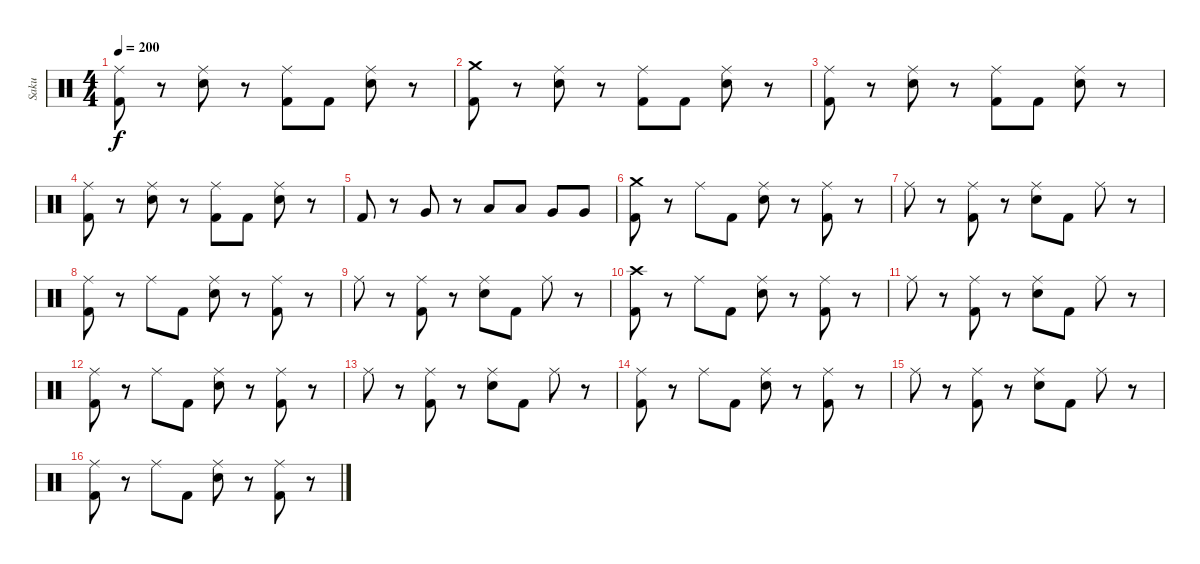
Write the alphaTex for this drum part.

\track ("Saku" "Saku") {instrument percussion}
\staff {score}
\articulation defaults
\ts (4 4)
\tempo 200
\clef neutral
\ks c
("Ride (middle)" "Kick (hit) 2").8{dy f} r.8 ("Ride (middle)" "Electric Snare (hit)").8 r.8 ("Ride (middle)" "Kick (hit) 2").8 "Kick (hit) 2".8 ("Ride (middle)" "Electric Snare (hit)").8 r.8 |
("Crash medium (hit)" "Kick (hit) 2").8 r.8 ("Ride (middle)" "Electric Snare (hit)").8 r.8 ("Ride (middle)" "Kick (hit) 2").8 "Kick (hit) 2".8 ("Ride (middle)" "Electric Snare (hit)").8 r.8 |
("Ride (middle)" "Kick (hit) 2").8 r.8 ("Ride (middle)" "Electric Snare (hit)").8 r.8 ("Ride (middle)" "Kick (hit) 2").8 "Kick (hit) 2".8 ("Ride (middle)" "Electric Snare (hit)").8 r.8 |
("Ride (middle)" "Kick (hit) 2").8 r.8 ("Ride (middle)" "Electric Snare (hit)").8 r.8 ("Ride (middle)" "Kick (hit) 2").8 "Kick (hit) 2".8 ("Ride (middle)" "Electric Snare (hit)").8 r.8 |
"Kick (hit) 2".8 r.8 "Very Low Tom (hit)".8 r.8 "Low Tom (hit)".8 "Low Tom (hit)".8 "Very Low Tom (hit)".8 "Very Low Tom (hit)".8 |
("Crash medium (hit)" "Kick (hit) 2").8 r.8 "Ride (middle)".8 "Kick (hit) 2".8 ("Ride (middle)" "Electric Snare (hit)").8 r.8 ("Ride (middle)" "Kick (hit) 2").8 r.8 |
"Ride (middle)".8 r.8 ("Ride (middle)" "Kick (hit) 2").8 r.8 ("Ride (middle)" "Electric Snare (hit)").8 "Kick (hit) 2".8 "Ride (middle)".8 r.8 |
("Ride (middle)" "Kick (hit) 2").8 r.8 "Ride (middle)".8 "Kick (hit) 2".8 ("Ride (middle)" "Electric Snare (hit)").8 r.8 ("Ride (middle)" "Kick (hit) 2").8 r.8 |
"Ride (middle)".8 r.8 ("Ride (middle)" "Kick (hit) 2").8 r.8 ("Ride (middle)" "Electric Snare (hit)").8 "Kick (hit) 2".8 "Ride (middle)".8 r.8 |
("Crash high (hit)" "Kick (hit) 2").8 r.8 "Ride (middle)".8 "Kick (hit) 2".8 ("Ride (middle)" "Electric Snare (hit)").8 r.8 ("Ride (middle)" "Kick (hit) 2").8 r.8 |
"Ride (middle)".8 r.8 ("Ride (middle)" "Kick (hit) 2").8 r.8 ("Ride (middle)" "Electric Snare (hit)").8 "Kick (hit) 2".8 "Ride (middle)".8 r.8 |
("Ride (middle)" "Kick (hit) 2").8 r.8 "Ride (middle)".8 "Kick (hit) 2".8 ("Ride (middle)" "Electric Snare (hit)").8 r.8 ("Ride (middle)" "Kick (hit) 2").8 r.8 |
"Ride (middle)".8 r.8 ("Ride (middle)" "Kick (hit) 2").8 r.8 ("Ride (middle)" "Electric Snare (hit)").8 "Kick (hit) 2".8 "Ride (middle)".8 r.8 |
("Ride (middle)" "Kick (hit) 2").8 r.8 "Ride (middle)".8 "Kick (hit) 2".8 ("Ride (middle)" "Electric Snare (hit)").8 r.8 ("Ride (middle)" "Kick (hit) 2").8 r.8 |
"Ride (middle)".8 r.8 ("Ride (middle)" "Kick (hit) 2").8 r.8 ("Ride (middle)" "Electric Snare (hit)").8 "Kick (hit) 2".8 "Ride (middle)".8 r.8 |
("Ride (middle)" "Kick (hit) 2").8 r.8 "Ride (middle)".8 "Kick (hit) 2".8 ("Ride (middle)" "Electric Snare (hit)").8 r.8 ("Ride (middle)" "Kick (hit) 2").8 r.8
